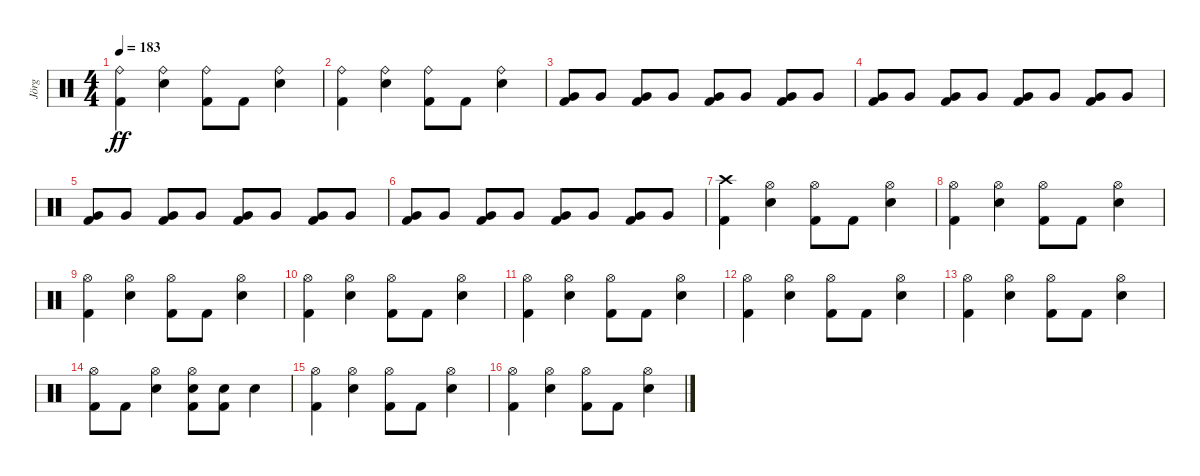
\track ("Jörg" "Jörg") {instrument percussion}
\staff {score}
\articulation defaults
\ts (4 4)
\tempo 183
\clef neutral
\ks c
("Kick (hit) 2" "Ride (bell)").4{dy ff} ("Snare (hit) 2" "Ride (bell)").4 ("Kick (hit) 2" "Ride (bell)").8 "Kick (hit) 2".8 ("Snare (hit) 2" "Ride (bell)").4 |
("Kick (hit) 2" "Ride (bell)").4 ("Snare (hit) 2" "Ride (bell)").4 ("Kick (hit) 2" "Ride (bell)").8 "Kick (hit) 2".8 ("Snare (hit) 2" "Ride (bell)").4 |
("Kick (hit) 2" "Very Low Tom (hit)").8 "Very Low Tom (hit)".8 ("Very Low Tom (hit)" "Kick (hit) 2").8 "Very Low Tom (hit)".8 ("Very Low Tom (hit)" "Kick (hit) 2").8 "Very Low Tom (hit)".8 ("Very Low Tom (hit)" "Kick (hit) 2").8 "Very Low Tom (hit)".8 |
("Very Low Tom (hit)" "Kick (hit) 2").8 "Very Low Tom (hit)".8 ("Very Low Tom (hit)" "Kick (hit) 2").8 "Very Low Tom (hit)".8 ("Very Low Tom (hit)" "Kick (hit) 2").8 "Very Low Tom (hit)".8 ("Very Low Tom (hit)" "Kick (hit) 2").8 "Very Low Tom (hit)".8 |
("Very Low Tom (hit)" "Kick (hit) 2").8 "Very Low Tom (hit)".8 ("Very Low Tom (hit)" "Kick (hit) 2").8 "Very Low Tom (hit)".8 ("Very Low Tom (hit)" "Kick (hit) 2").8 "Very Low Tom (hit)".8 ("Very Low Tom (hit)" "Kick (hit) 2").8 "Very Low Tom (hit)".8 |
("Very Low Tom (hit)" "Kick (hit) 2").8 "Very Low Tom (hit)".8 ("Very Low Tom (hit)" "Kick (hit) 2").8 "Very Low Tom (hit)".8 ("Very Low Tom (hit)" "Kick (hit) 2").8 "Very Low Tom (hit)".8 ("Very Low Tom (hit)" "Kick (hit) 2").8 "Very Low Tom (hit)".8 |
("Kick (hit) 2" "Crash high (hit)").4 ("Snare (hit) 2" "Hi-Hat (open)").4 ("Kick (hit) 2" "Hi-Hat (open)").8 "Kick (hit) 2".8 ("Snare (hit) 2" "Hi-Hat (open)").4 |
("Kick (hit) 2" "Hi-Hat (open)").4 ("Snare (hit) 2" "Hi-Hat (open)").4 ("Kick (hit) 2" "Hi-Hat (open)").8 "Kick (hit) 2".8 ("Snare (hit) 2" "Hi-Hat (open)").4 |
("Kick (hit) 2" "Hi-Hat (open)").4 ("Snare (hit) 2" "Hi-Hat (open)").4 ("Kick (hit) 2" "Hi-Hat (open)").8 "Kick (hit) 2".8 ("Snare (hit) 2" "Hi-Hat (open)").4 |
("Kick (hit) 2" "Hi-Hat (open)").4 ("Snare (hit) 2" "Hi-Hat (open)").4 ("Kick (hit) 2" "Hi-Hat (open)").8 "Kick (hit) 2".8 ("Snare (hit) 2" "Hi-Hat (open)").4 |
("Kick (hit) 2" "Hi-Hat (open)").4 ("Snare (hit) 2" "Hi-Hat (open)").4 ("Kick (hit) 2" "Hi-Hat (open)").8 "Kick (hit) 2".8 ("Snare (hit) 2" "Hi-Hat (open)").4 |
("Kick (hit) 2" "Hi-Hat (open)").4 ("Snare (hit) 2" "Hi-Hat (open)").4 ("Kick (hit) 2" "Hi-Hat (open)").8 "Kick (hit) 2".8 ("Snare (hit) 2" "Hi-Hat (open)").4 |
("Kick (hit) 2" "Hi-Hat (open)").4 ("Snare (hit) 2" "Hi-Hat (open)").4 ("Kick (hit) 2" "Hi-Hat (open)").8 "Kick (hit) 2".8 ("Snare (hit) 2" "Hi-Hat (open)").4 |
("Kick (hit) 2" "Hi-Hat (open)").8 "Kick (hit) 2".8 ("Snare (hit) 2" "Hi-Hat (open)").4 ("Snare (hit) 2" "Kick (hit) 2" "Hi-Hat (open)").8 ("Snare (hit) 2" "Kick (hit) 2").8 "Snare (hit) 2".4 |
("Kick (hit) 2" "Hi-Hat (open)").4 ("Snare (hit) 2" "Hi-Hat (open)").4 ("Kick (hit) 2" "Hi-Hat (open)").8 "Kick (hit) 2".8 ("Snare (hit) 2" "Hi-Hat (open)").4 |
("Kick (hit) 2" "Hi-Hat (open)").4 ("Snare (hit) 2" "Hi-Hat (open)").4 ("Kick (hit) 2" "Hi-Hat (open)").8 "Kick (hit) 2".8 ("Snare (hit) 2" "Hi-Hat (open)").4
